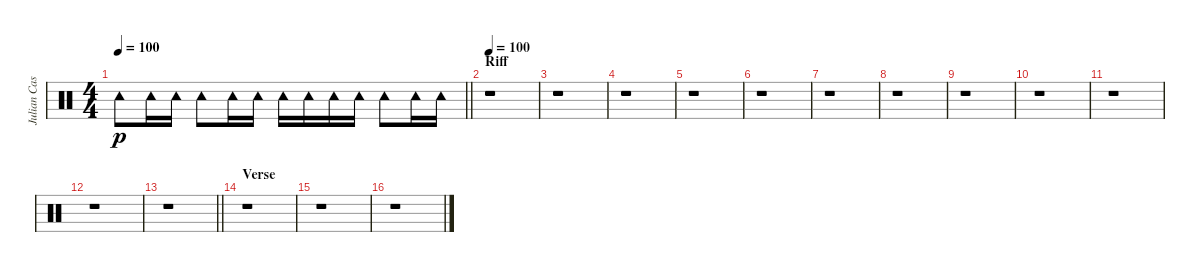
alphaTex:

\track ("Julian Casablancas" "Julian Cas") {instrument percussion}
\staff {score}
\articulation defaults
\ts (4 4)
\tempo 100
\clef neutral
\barLineRight lightlight
\ks c "Tambourine (hit)".8{dy p} "Tambourine (hit)".16 "Tambourine (hit)".16 "Tambourine (hit)".8 "Tambourine (hit)".16 "Tambourine (hit)".16 "Tambourine (hit)".16 "Tambourine (hit)".16 "Tambourine (hit)".16 "Tambourine (hit)".16 "Tambourine (hit)".8 "Tambourine (hit)".16 "Tambourine (hit)".16
|
\section ("" "Riff")
\tempo 100
r.1 |
r.1 |
r.1 |
r.1 |
r.1 |
r.1 |
r.1 |
r.1 |
r.1 |
r.1 |
r.1 |
\barLineRight lightlight
r.1 |
\section ("" "Verse")
r.1 |
r.1 |
r.1
